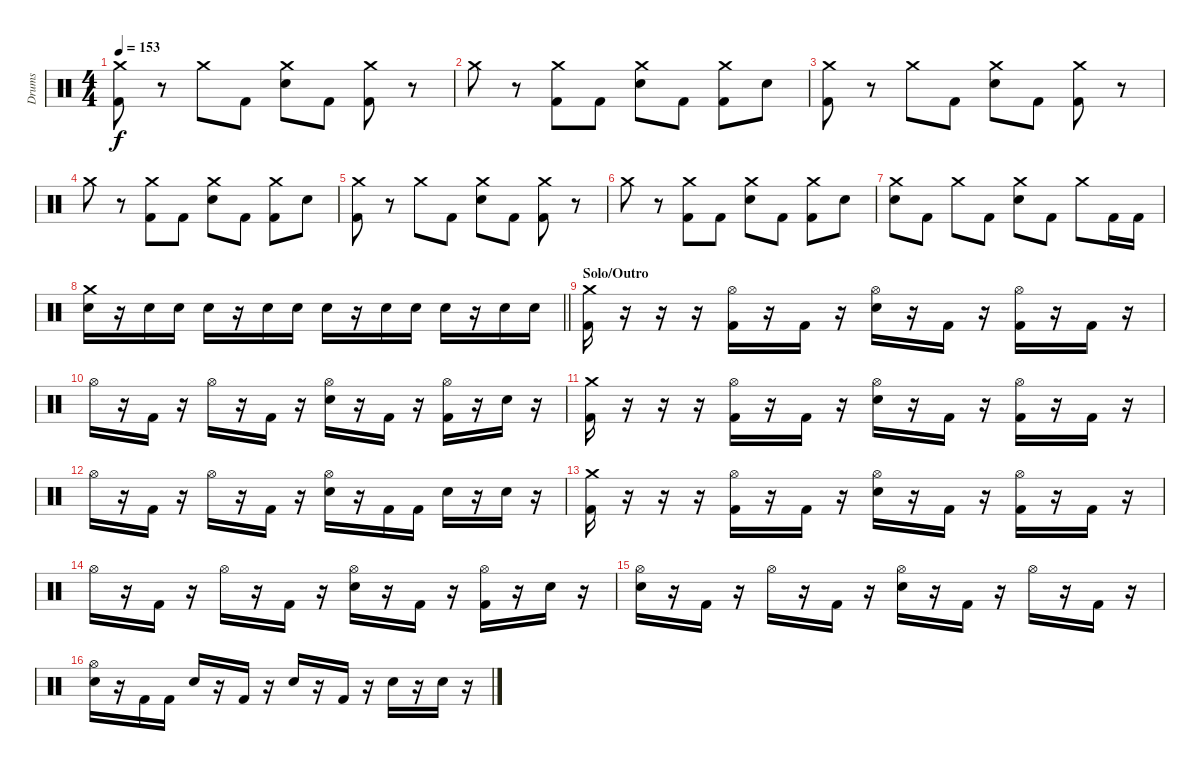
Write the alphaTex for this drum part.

\track ("Drums" "Drums") {instrument percussion}
\staff {score}
\articulation defaults
\ts (4 4)
\tempo 153
\clef neutral
\ks c
("Crash medium (hit)" "Kick (hit) 2").8{dy f} r.8 "Crash medium (hit)".8 "Kick (hit) 2".8 ("Crash medium (hit)" "Electric Snare (hit)").8 "Kick (hit) 2".8 ("Crash medium (hit)" "Kick (hit) 2").8 r.8 |
"Crash medium (hit)".8 r.8 ("Crash medium (hit)" "Kick (hit) 2").8 "Kick (hit) 2".8 ("Crash medium (hit)" "Electric Snare (hit)").8 "Kick (hit) 2".8 ("Crash medium (hit)" "Kick (hit) 2").8 "Electric Snare (hit)".8 |
("Crash medium (hit)" "Kick (hit) 2").8 r.8 "Crash medium (hit)".8 "Kick (hit) 2".8 ("Crash medium (hit)" "Electric Snare (hit)").8 "Kick (hit) 2".8 ("Crash medium (hit)" "Kick (hit) 2").8 r.8 |
"Crash medium (hit)".8 r.8 ("Crash medium (hit)" "Kick (hit) 2").8 "Kick (hit) 2".8 ("Crash medium (hit)" "Electric Snare (hit)").8 "Kick (hit) 2".8 ("Crash medium (hit)" "Kick (hit) 2").8 "Electric Snare (hit)".8 |
("Crash medium (hit)" "Kick (hit) 2").8 r.8 "Crash medium (hit)".8 "Kick (hit) 2".8 ("Crash medium (hit)" "Electric Snare (hit)").8 "Kick (hit) 2".8 ("Crash medium (hit)" "Kick (hit) 2").8 r.8 |
"Crash medium (hit)".8 r.8 ("Crash medium (hit)" "Kick (hit) 2").8 "Kick (hit) 2".8 ("Crash medium (hit)" "Electric Snare (hit)").8 "Kick (hit) 2".8 ("Crash medium (hit)" "Kick (hit) 2").8 "Electric Snare (hit)".8 |
("Crash medium (hit)" "Electric Snare (hit)").8 "Kick (hit) 2".8 "Crash medium (hit)".8 "Kick (hit) 2".8 ("Crash medium (hit)" "Electric Snare (hit)").8 "Kick (hit) 2".8 "Crash medium (hit)".8 "Kick (hit) 2".16 "Kick (hit) 2".16 |
\barLineRight lightlight
("Crash medium (hit)" "Electric Snare (hit)").16 r.16 "Electric Snare (hit)".16 "Electric Snare (hit)".16 "Electric Snare (hit)".16 r.16 "Electric Snare (hit)".16 "Electric Snare (hit)".16 "Electric Snare (hit)".16 r.16 "Electric Snare (hit)".16 "Electric Snare (hit)".16 "Electric Snare (hit)".16 r.16 "Electric Snare (hit)".16 "Electric Snare (hit)".16 |
\section ("" "Solo/Outro")
("Crash medium (hit)" "Kick (hit) 2").16 r.16 r.16 r.16 ("Hi-Hat (open)" "Kick (hit) 2").16 r.16 "Kick (hit) 2".16 r.16 ("Hi-Hat (open)" "Electric Snare (hit)").16 r.16 "Kick (hit) 2".16 r.16 ("Hi-Hat (open)" "Kick (hit) 2").16 r.16 "Kick (hit) 2".16 r.16 |
"Hi-Hat (open)".16 r.16 "Kick (hit) 2".16 r.16 "Hi-Hat (open)".16 r.16 "Kick (hit) 2".16 r.16 ("Hi-Hat (open)" "Electric Snare (hit)").16 r.16 "Kick (hit) 2".16 r.16 ("Hi-Hat (open)" "Kick (hit) 2").16 r.16 "Electric Snare (hit)".16 r.16 |
("Crash medium (hit)" "Kick (hit) 2").16 r.16 r.16 r.16 ("Hi-Hat (open)" "Kick (hit) 2").16 r.16 "Kick (hit) 2".16 r.16 ("Hi-Hat (open)" "Electric Snare (hit)").16 r.16 "Kick (hit) 2".16 r.16 ("Hi-Hat (open)" "Kick (hit) 2").16 r.16 "Kick (hit) 2".16 r.16 |
"Hi-Hat (open)".16 r.16 "Kick (hit) 2".16 r.16 "Hi-Hat (open)".16 r.16 "Kick (hit) 2".16 r.16 ("Hi-Hat (open)" "Electric Snare (hit)").16 r.16 "Kick (hit) 2".16 "Kick (hit) 2".16 "Electric Snare (hit)".16 r.16 "Electric Snare (hit)".16 r.16 |
("Crash medium (hit)" "Kick (hit) 2").16 r.16 r.16 r.16 ("Hi-Hat (open)" "Kick (hit) 2").16 r.16 "Kick (hit) 2".16 r.16 ("Hi-Hat (open)" "Electric Snare (hit)").16 r.16 "Kick (hit) 2".16 r.16 ("Hi-Hat (open)" "Kick (hit) 2").16 r.16 "Kick (hit) 2".16 r.16 |
"Hi-Hat (open)".16 r.16 "Kick (hit) 2".16 r.16 "Hi-Hat (open)".16 r.16 "Kick (hit) 2".16 r.16 ("Hi-Hat (open)" "Electric Snare (hit)").16 r.16 "Kick (hit) 2".16 r.16 ("Hi-Hat (open)" "Kick (hit) 2").16 r.16 "Electric Snare (hit)".16 r.16 |
("Hi-Hat (open)" "Electric Snare (hit)").16 r.16 "Kick (hit) 2".16 r.16 "Hi-Hat (open)".16 r.16 "Kick (hit) 2".16 r.16 ("Hi-Hat (open)" "Electric Snare (hit)").16 r.16 "Kick (hit) 2".16 r.16 "Hi-Hat (open)".16 r.16 "Kick (hit) 2".16 r.16 |
("Hi-Hat (open)" "Electric Snare (hit)").16 r.16 "Kick (hit) 2".16 "Kick (hit) 2".16 "Electric Snare (hit)".16 r.16 "Kick (hit) 2".16 r.16 "Electric Snare (hit)".16 r.16 "Kick (hit) 2".16 r.16 "Electric Snare (hit)".16 r.16 "Electric Snare (hit)".16 r.16
